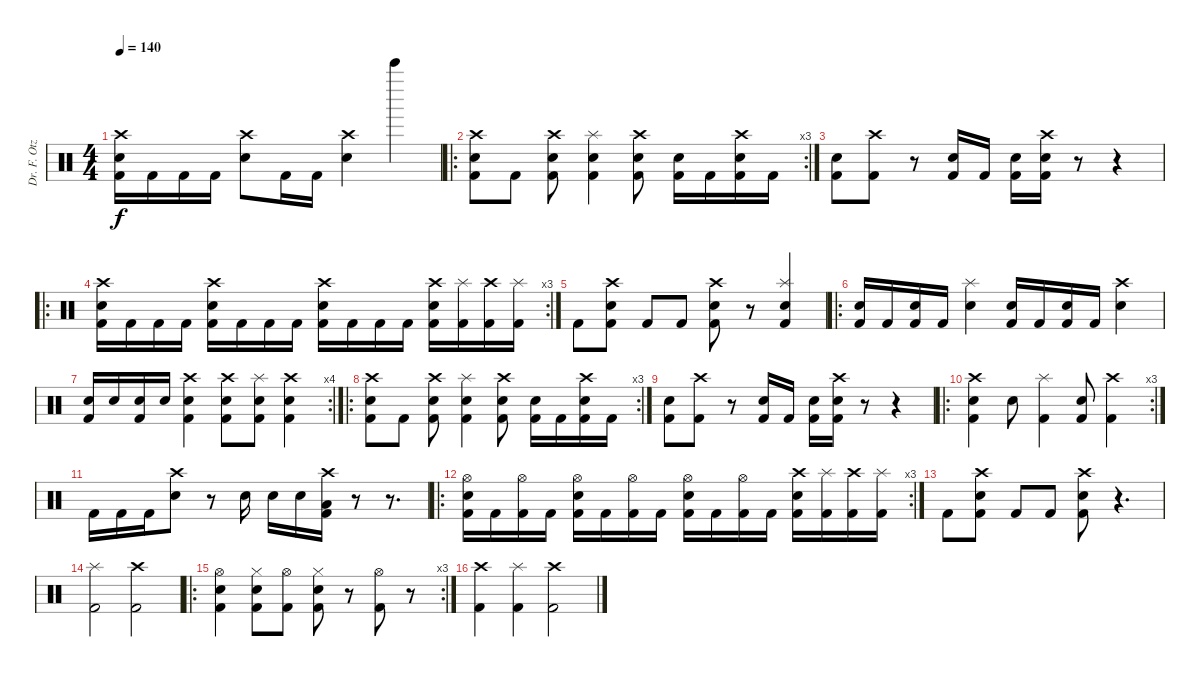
\track ("Dr. F. Otze" "Dr. F. Otz") {instrument percussion}
\staff {score}
\articulation defaults
\ts (4 4)
\tempo 140
\clef neutral
\ks c
("Crash high (hit)" "Snare (hit) 2" "Kick (hit) 2").16{dy f} "Kick (hit) 2".16 "Kick (hit) 2".16 "Kick (hit) 2".16 ("Crash high (hit)" "Snare (hit) 2").8 "Kick (hit) 2".16 "Kick (hit) 2".16 ("Crash high (hit)" "Snare (hit) 2").4 "Bell Tree (hit)".4 |
\ro
\rc 3
("Crash high (hit)" "Snare (hit) 2" "Kick (hit) 2").8 "Kick (hit) 2".8 ("Crash high (hit)" "Snare (hit) 2" "Kick (hit) 2").8 ("Splash (hit)" "Snare (hit) 2" "Kick (hit) 2").4 ("Crash high (hit)" "Snare (hit) 2" "Kick (hit) 2").8 ("Snare (hit) 2" "Kick (hit) 2").16 "Kick (hit) 2".16 ("Crash high (hit)" "Snare (hit) 2" "Kick (hit) 2").16 "Kick (hit) 2".16 |
("Snare (hit) 2" "Kick (hit) 2").8 ("Crash high (hit)" "Kick (hit) 2").8 r.8 ("Snare (hit) 2" "Kick (hit) 2").16 "Kick (hit) 2".16 ("Snare (hit) 2" "Kick (hit) 2").16 ("Crash high (hit)" "Snare (hit) 2" "Kick (hit) 2").16 r.8 r.4 |
\ro
\rc 3
("Crash high (hit)" "Snare (hit) 2" "Kick (hit) 2").16 "Kick (hit) 2".16 "Kick (hit) 2".16 "Kick (hit) 2".16 ("Crash high (hit)" "Snare (hit) 2" "Kick (hit) 2").16 "Kick (hit) 2".16 "Kick (hit) 2".16 "Kick (hit) 2".16 ("Crash high (hit)" "Snare (hit) 2" "Kick (hit) 2").16 "Kick (hit) 2".16 "Kick (hit) 2".16 "Kick (hit) 2".16 ("Crash high (hit)" "Snare (hit) 2" "Kick (hit) 2").16 ("Splash (hit)" "Kick (hit) 2").16 ("Crash high (hit)" "Kick (hit) 2").16 ("Splash (hit)" "Kick (hit) 2").16 |
"Kick (hit) 2".8 ("Crash high (hit)" "Electric Snare (hit)" "Kick (hit) 2").8 "Kick (hit) 2".8 "Kick (hit) 2".8 ("Crash high (hit)" "Electric Snare (hit)" "Kick (hit) 2").8 r.8 ("Splash (hit)" "Electric Snare (hit)" "Kick (hit) 2").4 |
\ro
("Snare (hit) 2" "Kick (hit) 2").16 "Kick (hit) 2".16 ("Snare (hit) 2" "Kick (hit) 2").16 "Kick (hit) 2".16 ("Splash (hit)" "Electric Snare (hit)").4 ("Snare (hit) 2" "Kick (hit) 2").16 "Kick (hit) 2".16 ("Snare (hit) 2" "Kick (hit) 2").16 "Kick (hit) 2".16 ("Crash high (hit)" "Electric Snare (hit)").4 |
\rc 4
("Snare (hit) 2" "Kick (hit) 2").16 "Snare (hit) 2".16 ("Snare (hit) 2" "Kick (hit) 2").16 "Snare (hit) 2".16 ("Crash high (hit)" "Electric Snare (hit)" "Kick (hit) 2").4 ("Crash high (hit)" "Snare (hit) 2" "Kick (hit) 2").8 ("Splash (hit)" "Snare (hit) 2" "Kick (hit) 2").8 ("Crash high (hit)" "Electric Snare (hit)" "Kick (hit) 2").4 |
\ro
\rc 3
("Crash high (hit)" "Snare (hit) 2" "Kick (hit) 2").8 "Kick (hit) 2".8 ("Crash high (hit)" "Snare (hit) 2" "Kick (hit) 2").8 ("Splash (hit)" "Snare (hit) 2" "Kick (hit) 2").4 ("Crash high (hit)" "Snare (hit) 2" "Kick (hit) 2").8 ("Snare (hit) 2" "Kick (hit) 2").16 "Kick (hit) 2".16 ("Crash high (hit)" "Snare (hit) 2" "Kick (hit) 2").16 "Kick (hit) 2".16 |
("Snare (hit) 2" "Kick (hit) 2").8 ("Crash high (hit)" "Kick (hit) 2").8 r.8 ("Snare (hit) 2" "Kick (hit) 2").16 "Kick (hit) 2".16 ("Snare (hit) 2" "Kick (hit) 2").16 ("Crash high (hit)" "Snare (hit) 2" "Kick (hit) 2").16 r.8 r.4 |
\ro
\rc 3
("Crash high (hit)" "Snare (hit) 2" "Kick (hit) 2").4 "Snare (hit) 2".8 ("Splash (hit)" "Kick (hit) 2").4 ("Snare (hit) 2" "Kick (hit) 2").8 ("Crash high (hit)" "Kick (hit) 2").4 |
"Kick (hit) 2".16 "Kick (hit) 2".16 "Kick (hit) 2".16 ("Crash high (hit)" "Snare (hit) 2").8 r.8 "Snare (hit) 2".16 "Snare (hit) 2".16 "Snare (hit) 2".16 ("Crash high (hit)" "Low Floor Tom (hit)" "Kick (hit) 2").16 r.8 r.8{d} |
\ro
\rc 3
("Hi-Hat (open)" "Snare (hit) 2" "Kick (hit) 2").16 "Kick (hit) 2".16 ("Hi-Hat (open)" "Kick (hit) 2").16 "Kick (hit) 2".16 ("Hi-Hat (open)" "Snare (hit) 2" "Kick (hit) 2").16 "Kick (hit) 2".16 ("Hi-Hat (open)" "Kick (hit) 2").16 "Kick (hit) 2".16 ("Hi-Hat (open)" "Snare (hit) 2" "Kick (hit) 2").16 "Kick (hit) 2".16 ("Hi-Hat (open)" "Kick (hit) 2").16 "Kick (hit) 2".16 ("Crash high (hit)" "Snare (hit) 2" "Kick (hit) 2").16 ("Splash (hit)" "Kick (hit) 2").16 ("Crash high (hit)" "Kick (hit) 2").16 ("Splash (hit)" "Kick (hit) 2").16 |
"Kick (hit) 2".8 ("Crash high (hit)" "Electric Snare (hit)" "Kick (hit) 2").8 "Kick (hit) 2".8 "Kick (hit) 2".8 ("Crash high (hit)" "Electric Snare (hit)" "Kick (hit) 2").8 r.4{d} |
("Splash (hit)" "Kick (hit) 2").2 ("Crash high (hit)" "Kick (hit) 2").2 |
\ro
\rc 3
("Hi-Hat (open)" "Snare (hit) 2" "Kick (hit) 2").4 ("Hi-Hat (closed)" "Snare (hit) 2" "Kick (hit) 2").8 ("Hi-Hat (open)" "Kick (hit) 2").8 ("Hi-Hat (closed)" "Snare (hit) 2" "Kick (hit) 2").8 r.8 ("Hi-Hat (open)" "Kick (hit) 2").8 r.8 |
("Crash high (hit)" "Kick (hit) 2").4 ("Splash (hit)" "Kick (hit) 2").4 ("Crash high (hit)" "Kick (hit) 2").2
